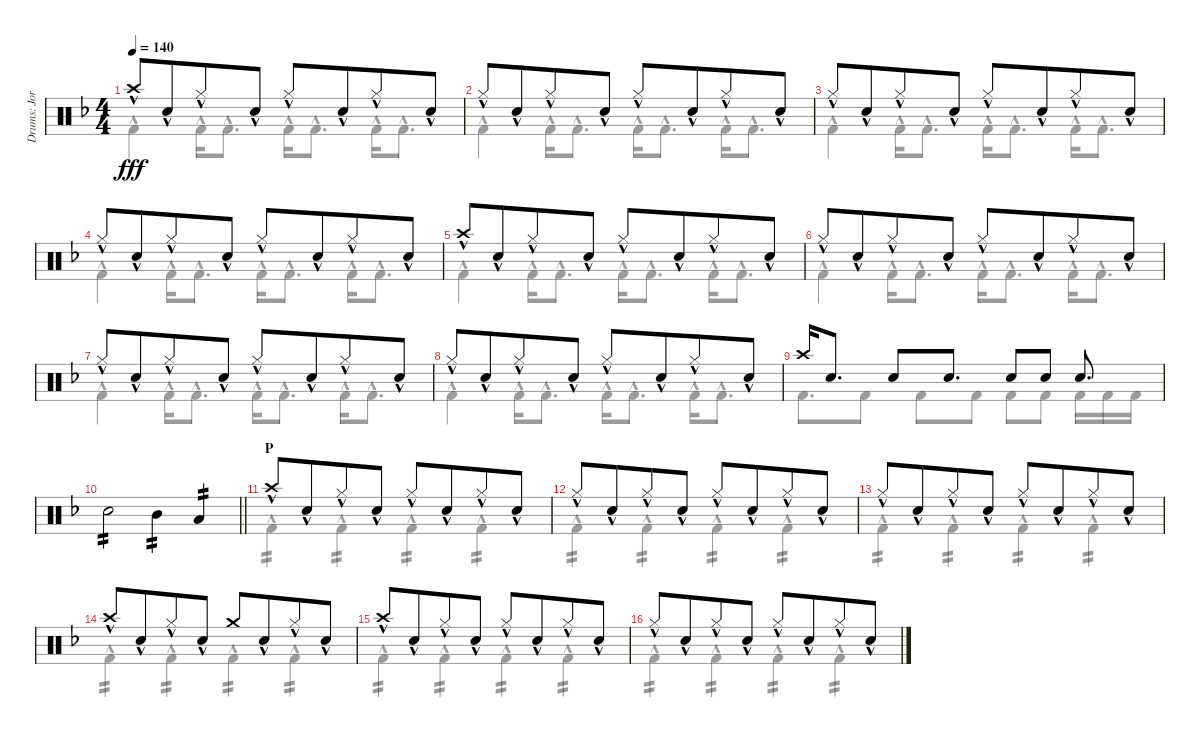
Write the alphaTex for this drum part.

\track ("Drums: Jorg" "Drums: Jor") {instrument percussion}
\staff {score}
\articulation defaults
\voice
\ts (4 4)
\tempo 140
\clef neutral
\ks f "Crash high (hit)"{hac}.8{dy fff} "Snare (hit) 2"{hac}.8{beam merge} "Hi-Hat (closed)"{hac}.8 "Snare (hit) 2"{hac}.8 "Hi-Hat (closed)"{hac}.8 "Snare (hit) 2"{hac}.8{beam merge} "Hi-Hat (closed)"{hac}.8 "Snare (hit) 2"{hac}.8
|
"Hi-Hat (closed)"{hac}.8 "Snare (hit) 2"{hac}.8{beam merge} "Hi-Hat (closed)"{hac}.8 "Snare (hit) 2"{hac}.8 "Hi-Hat (closed)"{hac}.8 "Snare (hit) 2"{hac}.8{beam merge} "Hi-Hat (closed)"{hac}.8 "Snare (hit) 2"{hac}.8 |
"Hi-Hat (closed)"{hac}.8 "Snare (hit) 2"{hac}.8{beam merge} "Hi-Hat (closed)"{hac}.8 "Snare (hit) 2"{hac}.8 "Hi-Hat (closed)"{hac}.8 "Snare (hit) 2"{hac}.8{beam merge} "Hi-Hat (closed)"{hac}.8 "Snare (hit) 2"{hac}.8 |
"Hi-Hat (closed)"{hac}.8 "Snare (hit) 2"{hac}.8{beam merge} "Hi-Hat (closed)"{hac}.8 "Snare (hit) 2"{hac}.8 "Hi-Hat (closed)"{hac}.8 "Snare (hit) 2"{hac}.8{beam merge} "Hi-Hat (closed)"{hac}.8 "Snare (hit) 2"{hac}.8 |
"Crash high (hit)"{hac}.8 "Snare (hit) 2"{hac}.8{beam merge} "Hi-Hat (closed)"{hac}.8 "Snare (hit) 2"{hac}.8 "Hi-Hat (closed)"{hac}.8 "Snare (hit) 2"{hac}.8{beam merge} "Hi-Hat (closed)"{hac}.8 "Snare (hit) 2"{hac}.8 |
"Hi-Hat (closed)"{hac}.8 "Snare (hit) 2"{hac}.8{beam merge} "Hi-Hat (closed)"{hac}.8 "Snare (hit) 2"{hac}.8 "Hi-Hat (closed)"{hac}.8 "Snare (hit) 2"{hac}.8{beam merge} "Hi-Hat (closed)"{hac}.8 "Snare (hit) 2"{hac}.8 |
"Hi-Hat (closed)"{hac}.8 "Snare (hit) 2"{hac}.8{beam merge} "Hi-Hat (closed)"{hac}.8 "Snare (hit) 2"{hac}.8 "Hi-Hat (closed)"{hac}.8 "Snare (hit) 2"{hac}.8{beam merge} "Hi-Hat (closed)"{hac}.8 "Snare (hit) 2"{hac}.8 |
"Hi-Hat (closed)"{hac}.8 "Snare (hit) 2"{hac}.8{beam merge} "Hi-Hat (closed)"{hac}.8 "Snare (hit) 2"{hac}.8 "Hi-Hat (closed)"{hac}.8 "Snare (hit) 2"{hac}.8{beam merge} "Hi-Hat (closed)"{hac}.8 "Snare (hit) 2"{hac}.8 |
"Crash high (hit)".16 "Snare (hit) 2".8{d} "Snare (hit) 2".8 "Snare (hit) 2".8{d} "Snare (hit) 2".8 "Snare (hit) 2".8 "Snare (hit) 2".8{d} |
\barLineRight lightlight "Snare (hit) 2".2{tp 2} "Mid Tom (hit)".4{tp 2} "Low Tom (hit)".4{tp 2}
|
\section ("" "P")
"Crash high (hit)"{hac}.8 "Snare (hit) 2"{hac}.8{beam merge} "Hi-Hat (closed)"{hac}.8 "Snare (hit) 2"{hac}.8 "Hi-Hat (closed)"{hac}.8 "Snare (hit) 2"{hac}.8{beam merge} "Hi-Hat (closed)"{hac}.8 "Snare (hit) 2"{hac}.8 |
"Hi-Hat (closed)"{hac}.8 "Snare (hit) 2"{hac}.8{beam merge} "Hi-Hat (closed)"{hac}.8 "Snare (hit) 2"{hac}.8 "Hi-Hat (closed)"{hac}.8 "Snare (hit) 2"{hac}.8{beam merge} "Hi-Hat (closed)"{hac}.8 "Snare (hit) 2"{hac}.8 |
"Hi-Hat (closed)"{hac}.8 "Snare (hit) 2"{hac}.8{beam merge} "Hi-Hat (closed)"{hac}.8 "Snare (hit) 2"{hac}.8 "Hi-Hat (closed)"{hac}.8 "Snare (hit) 2"{hac}.8{beam merge} "Hi-Hat (closed)"{hac}.8 "Snare (hit) 2"{hac}.8 |
"Crash high (hit)"{hac}.8 "Snare (hit) 2"{hac}.8{beam merge} "Hi-Hat (closed)"{hac}.8 "Snare (hit) 2"{hac}.8 "Crash medium (hit)".8 "Snare (hit) 2"{hac}.8{beam merge} "Hi-Hat (closed)"{hac}.8 "Snare (hit) 2"{hac}.8 |
"Crash high (hit)"{hac}.8 "Snare (hit) 2"{hac}.8{beam merge} "Hi-Hat (closed)"{hac}.8 "Snare (hit) 2"{hac}.8 "Hi-Hat (closed)"{hac}.8 "Snare (hit) 2"{hac}.8{beam merge} "Hi-Hat (closed)"{hac}.8 "Snare (hit) 2"{hac}.8 |
"Hi-Hat (closed)"{hac}.8 "Snare (hit) 2"{hac}.8{beam merge} "Hi-Hat (closed)"{hac}.8 "Snare (hit) 2"{hac}.8 "Hi-Hat (closed)"{hac}.8 "Snare (hit) 2"{hac}.8{beam merge} "Hi-Hat (closed)"{hac}.8 "Snare (hit) 2"{hac}.8
\voice
\clef neutral
\ottava regular
\simile none
\ks f "Kick (hit) 2"{hac}.4{dy fff} "Kick (hit) 2"{hac}.16 "Kick (hit) 2"{hac}.8{d} "Kick (hit) 2"{hac}.16 "Kick (hit) 2"{hac}.8{d} "Kick (hit) 2"{hac}.16 "Kick (hit) 2"{hac}.8{d}
|
"Kick (hit) 2"{hac}.4 "Kick (hit) 2"{hac}.16 "Kick (hit) 2"{hac}.8{d} "Kick (hit) 2"{hac}.16 "Kick (hit) 2"{hac}.8{d} "Kick (hit) 2"{hac}.16 "Kick (hit) 2"{hac}.8{d} |
"Kick (hit) 2"{hac}.4 "Kick (hit) 2"{hac}.16 "Kick (hit) 2"{hac}.8{d} "Kick (hit) 2"{hac}.16 "Kick (hit) 2"{hac}.8{d} "Kick (hit) 2"{hac}.16 "Kick (hit) 2"{hac}.8{d} |
"Kick (hit) 2"{hac}.4 "Kick (hit) 2"{hac}.16 "Kick (hit) 2"{hac}.8{d} "Kick (hit) 2"{hac}.16 "Kick (hit) 2"{hac}.8{d} "Kick (hit) 2"{hac}.16 "Kick (hit) 2"{hac}.8{d} |
"Kick (hit) 2"{hac}.4 "Kick (hit) 2"{hac}.16 "Kick (hit) 2"{hac}.8{d} "Kick (hit) 2"{hac}.16 "Kick (hit) 2"{hac}.8{d} "Kick (hit) 2"{hac}.16 "Kick (hit) 2"{hac}.8{d} |
"Kick (hit) 2"{hac}.4 "Kick (hit) 2"{hac}.16 "Kick (hit) 2"{hac}.8{d} "Kick (hit) 2"{hac}.16 "Kick (hit) 2"{hac}.8{d} "Kick (hit) 2"{hac}.16 "Kick (hit) 2"{hac}.8{d} |
"Kick (hit) 2"{hac}.4 "Kick (hit) 2"{hac}.16 "Kick (hit) 2"{hac}.8{d} "Kick (hit) 2"{hac}.16 "Kick (hit) 2"{hac}.8{d} "Kick (hit) 2"{hac}.16 "Kick (hit) 2"{hac}.8{d} |
"Kick (hit) 2"{hac}.4 "Kick (hit) 2"{hac}.16 "Kick (hit) 2"{hac}.8{d} "Kick (hit) 2"{hac}.16 "Kick (hit) 2"{hac}.8{d} "Kick (hit) 2"{hac}.16 "Kick (hit) 2"{hac}.8{d} |
"Kick (hit) 2".8{d} "Kick (hit) 2".8 "Kick (hit) 2".8 "Kick (hit) 2".8 "Kick (hit) 2".8 "Kick (hit) 2".8 "Kick (hit) 2".16 "Kick (hit) 2".16 "Kick (hit) 2".16 |
\barLineRight lightlight
|
"Kick (hit) 2"{hac}.4{tp 2 beam merge} "Kick (hit) 2"{hac}.4{tp 2} "Kick (hit) 2"{hac}.4{tp 2} "Kick (hit) 2"{hac}.4{tp 2} |
"Kick (hit) 2"{hac}.4{tp 2 beam merge} "Kick (hit) 2"{hac}.4{tp 2} "Kick (hit) 2"{hac}.4{tp 2} "Kick (hit) 2"{hac}.4{tp 2} |
"Kick (hit) 2"{hac}.4{tp 2 beam merge} "Kick (hit) 2"{hac}.4{tp 2} "Kick (hit) 2"{hac}.4{tp 2} "Kick (hit) 2"{hac}.4{tp 2} |
"Kick (hit) 2"{hac}.4{tp 2 beam merge} "Kick (hit) 2"{hac}.4{tp 2} "Kick (hit) 2"{hac}.4{tp 2} "Kick (hit) 2"{hac}.4{tp 2} |
"Kick (hit) 2"{hac}.4{tp 2 beam merge} "Kick (hit) 2"{hac}.4{tp 2} "Kick (hit) 2"{hac}.4{tp 2} "Kick (hit) 2"{hac}.4{tp 2} |
"Kick (hit) 2"{hac}.4{tp 2 beam merge} "Kick (hit) 2"{hac}.4{tp 2} "Kick (hit) 2"{hac}.4{tp 2} "Kick (hit) 2"{hac}.4{tp 2}
